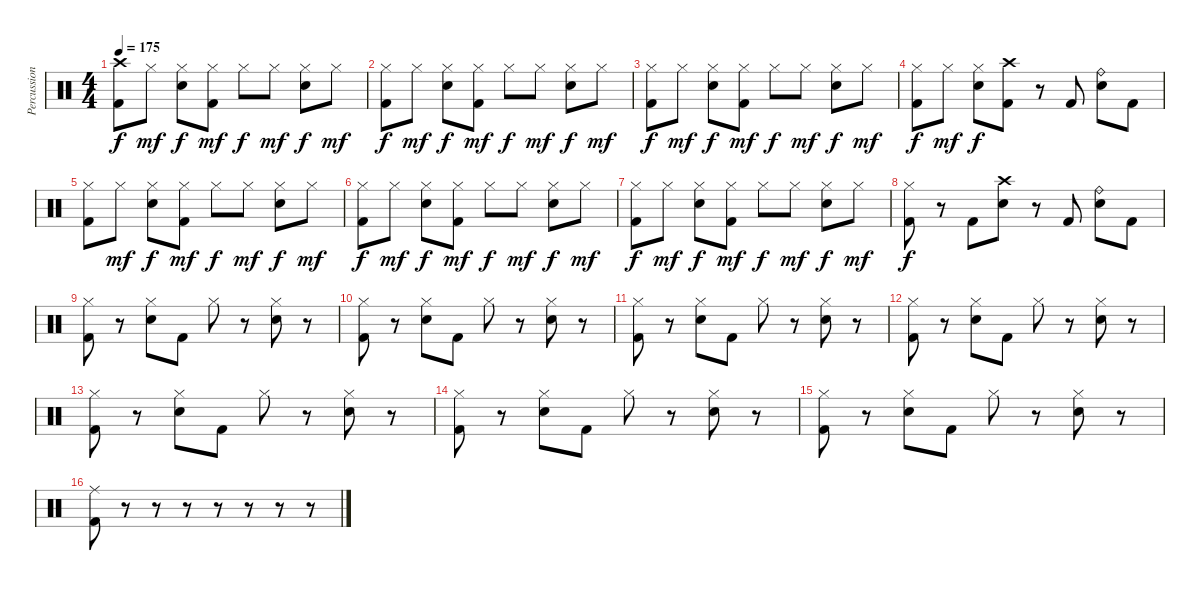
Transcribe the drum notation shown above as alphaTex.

\track ("Percussion" "Percussion") {instrument percussion}
\staff {score}
\articulation defaults
\ts (4 4)
\tempo 175
\clef neutral
\ks c
("Crash high (hit)" "Kick (hit) 2").8{dy f} "Hi-Hat (closed)".8{dy mf} ("Hi-Hat (closed)" "Electric Snare (hit)").8{dy f} ("Hi-Hat (closed)" "Kick (hit) 2").8{dy mf} "Hi-Hat (closed)".8{dy f} "Hi-Hat (closed)".8{dy mf} ("Hi-Hat (closed)" "Electric Snare (hit)").8{dy f} "Hi-Hat (closed)".8{dy mf} |
("Hi-Hat (closed)" "Kick (hit) 2").8{dy f} "Hi-Hat (closed)".8{dy mf} ("Hi-Hat (closed)" "Electric Snare (hit)").8{dy f} ("Hi-Hat (closed)" "Kick (hit) 2").8{dy mf} "Hi-Hat (closed)".8{dy f} "Hi-Hat (closed)".8{dy mf} ("Hi-Hat (closed)" "Electric Snare (hit)").8{dy f} "Hi-Hat (closed)".8{dy mf} |
("Hi-Hat (closed)" "Kick (hit) 2").8{dy f} "Hi-Hat (closed)".8{dy mf} ("Hi-Hat (closed)" "Electric Snare (hit)").8{dy f} ("Hi-Hat (closed)" "Kick (hit) 2").8{dy mf} "Hi-Hat (closed)".8{dy f} "Hi-Hat (closed)".8{dy mf} ("Hi-Hat (closed)" "Electric Snare (hit)").8{dy f} "Hi-Hat (closed)".8{dy mf} |
("Hi-Hat (closed)" "Kick (hit) 2").8{dy f} "Hi-Hat (closed)".8{dy mf} ("Hi-Hat (closed)" "Electric Snare (hit)").8{dy f} ("Crash high (hit)" "Kick (hit) 2").8 r.8 "Kick (hit) 2".8 ("Ride (bell)" "Electric Snare (hit)").8 "Kick (hit) 2".8 |
("Hi-Hat (closed)" "Kick (hit) 2").8 "Hi-Hat (closed)".8{dy mf} ("Hi-Hat (closed)" "Electric Snare (hit)").8{dy f} ("Hi-Hat (closed)" "Kick (hit) 2").8{dy mf} "Hi-Hat (closed)".8{dy f} "Hi-Hat (closed)".8{dy mf} ("Hi-Hat (closed)" "Electric Snare (hit)").8{dy f} "Hi-Hat (closed)".8{dy mf} |
("Hi-Hat (closed)" "Kick (hit) 2").8{dy f} "Hi-Hat (closed)".8{dy mf} ("Hi-Hat (closed)" "Electric Snare (hit)").8{dy f} ("Hi-Hat (closed)" "Kick (hit) 2").8{dy mf} "Hi-Hat (closed)".8{dy f} "Hi-Hat (closed)".8{dy mf} ("Hi-Hat (closed)" "Electric Snare (hit)").8{dy f} "Hi-Hat (closed)".8{dy mf} |
("Hi-Hat (closed)" "Kick (hit) 2").8{dy f} "Hi-Hat (closed)".8{dy mf} ("Hi-Hat (closed)" "Electric Snare (hit)").8{dy f} ("Hi-Hat (closed)" "Kick (hit) 2").8{dy mf} "Hi-Hat (closed)".8{dy f} "Hi-Hat (closed)".8{dy mf} ("Hi-Hat (closed)" "Electric Snare (hit)").8{dy f} "Hi-Hat (closed)".8{dy mf} |
("Hi-Hat (closed)" "Kick (hit) 2").8{dy f} r.8 "Kick (hit) 2".8 ("Crash high (hit)" "Electric Snare (hit)").8 r.8 "Kick (hit) 2".8 ("Ride (bell)" "Electric Snare (hit)").8 "Kick (hit) 2".8 |
("Hi-Hat (closed)" "Kick (hit) 2").8 r.8 ("Hi-Hat (closed)" "Electric Snare (hit)").8 "Kick (hit) 2".8 "Hi-Hat (closed)".8 r.8 ("Hi-Hat (closed)" "Electric Snare (hit)").8 r.8 |
("Hi-Hat (closed)" "Kick (hit) 2").8 r.8 ("Hi-Hat (closed)" "Electric Snare (hit)").8 "Kick (hit) 2".8 "Hi-Hat (closed)".8 r.8 ("Hi-Hat (closed)" "Electric Snare (hit)").8 r.8 |
("Hi-Hat (closed)" "Kick (hit) 2").8 r.8 ("Hi-Hat (closed)" "Electric Snare (hit)").8 "Kick (hit) 2".8 "Hi-Hat (closed)".8 r.8 ("Hi-Hat (closed)" "Electric Snare (hit)").8 r.8 |
("Hi-Hat (closed)" "Kick (hit) 2").8 r.8 ("Hi-Hat (closed)" "Electric Snare (hit)").8 "Kick (hit) 2".8 "Hi-Hat (closed)".8 r.8 ("Hi-Hat (closed)" "Electric Snare (hit)").8 r.8 |
("Hi-Hat (closed)" "Kick (hit) 2").8 r.8 ("Hi-Hat (closed)" "Electric Snare (hit)").8 "Kick (hit) 2".8 "Hi-Hat (closed)".8 r.8 ("Hi-Hat (closed)" "Electric Snare (hit)").8 r.8 |
("Hi-Hat (closed)" "Kick (hit) 2").8 r.8 ("Hi-Hat (closed)" "Electric Snare (hit)").8 "Kick (hit) 2".8 "Hi-Hat (closed)".8 r.8 ("Hi-Hat (closed)" "Electric Snare (hit)").8 r.8 |
("Hi-Hat (closed)" "Kick (hit) 2").8 r.8 ("Hi-Hat (closed)" "Electric Snare (hit)").8 "Kick (hit) 2".8 "Hi-Hat (closed)".8 r.8 ("Hi-Hat (closed)" "Electric Snare (hit)").8 r.8 |
("Ride (middle)" "Kick (hit) 2").8 r.8 r.8 r.8 r.8 r.8 r.8 r.8
